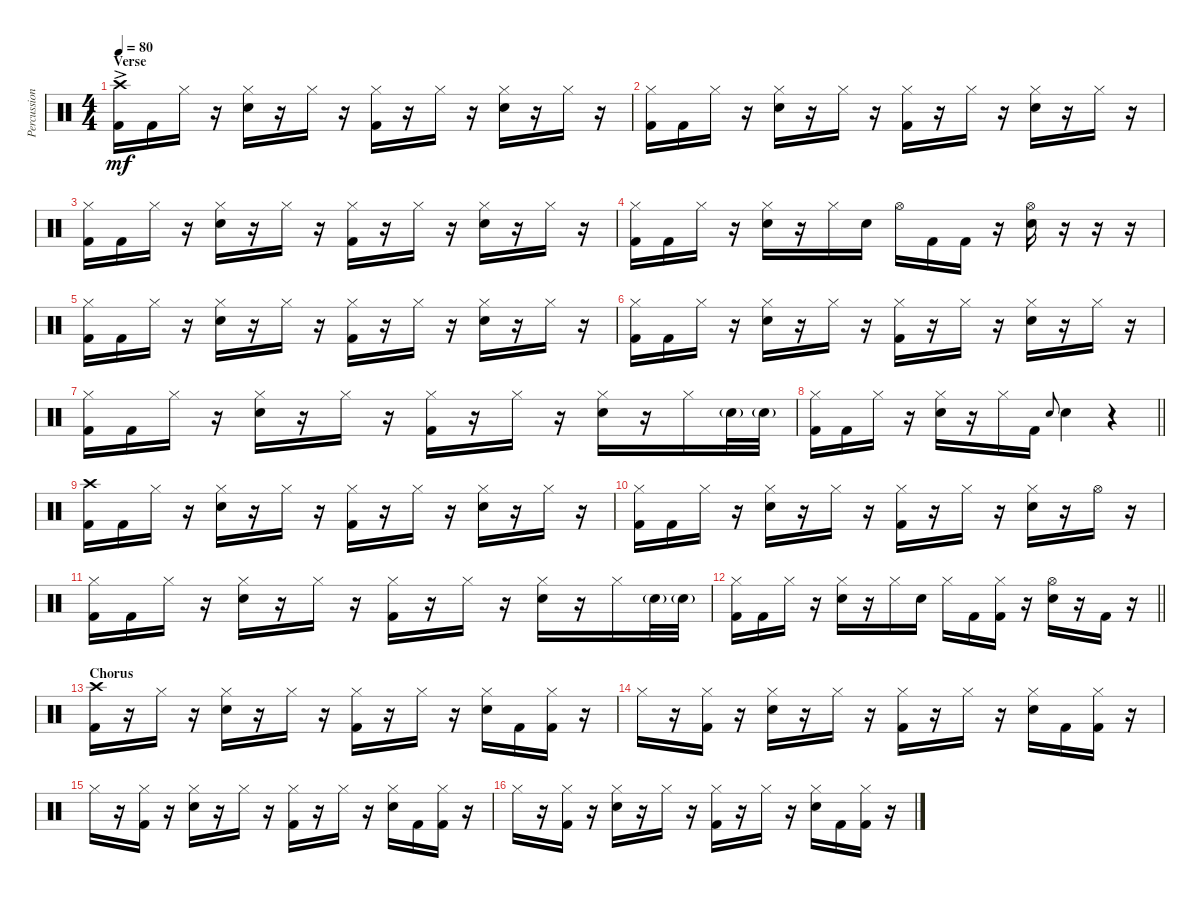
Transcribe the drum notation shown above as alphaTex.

\track ("Percussion" "Percussion") {instrument percussion}
\staff {score}
\articulation defaults
\ts (4 4)
\section ("" "Verse")
\tempo 80
\clef neutral
\ks c
("Crash high (hit)"{ac} "Kick (hit) 2").16{dy mf} "Kick (hit) 2".16 "Hi-Hat (closed)".16 r.16 ("Hi-Hat (closed)" "Snare (hit) 2").16 r.16 "Hi-Hat (closed)".16 r.16 ("Hi-Hat (closed)" "Kick (hit) 2").16 r.16 "Hi-Hat (closed)".16 r.16 ("Hi-Hat (closed)" "Snare (hit) 2").16 r.16 "Hi-Hat (closed)".16 r.16 |
("Hi-Hat (closed)" "Kick (hit) 2").16 "Kick (hit) 2".16 "Hi-Hat (closed)".16 r.16 ("Hi-Hat (closed)" "Snare (hit) 2").16 r.16 "Hi-Hat (closed)".16 r.16 ("Hi-Hat (closed)" "Kick (hit) 2").16 r.16 "Hi-Hat (closed)".16 r.16 ("Hi-Hat (closed)" "Snare (hit) 2").16 r.16 "Hi-Hat (closed)".16 r.16 |
("Hi-Hat (closed)" "Kick (hit) 2").16 "Kick (hit) 2".16 "Hi-Hat (closed)".16 r.16 ("Hi-Hat (closed)" "Snare (hit) 2").16 r.16 "Hi-Hat (closed)".16 r.16 ("Hi-Hat (closed)" "Kick (hit) 2").16 r.16 "Hi-Hat (closed)".16 r.16 ("Hi-Hat (closed)" "Snare (hit) 2").16 r.16 "Hi-Hat (closed)".16 r.16 |
("Hi-Hat (closed)" "Kick (hit) 2").16 "Kick (hit) 2".16 "Hi-Hat (closed)".16 r.16 ("Hi-Hat (closed)" "Snare (hit) 2").16 r.16 "Hi-Hat (closed)".16 "Snare (hit) 2".16 "Hi-Hat (open)".16 "Kick (hit) 2".16 "Kick (hit) 2".16 r.16 ("Hi-Hat (open)" "Snare (hit) 2").16 r.16 r.16 r.16 |
("Hi-Hat (closed)" "Kick (hit) 2").16 "Kick (hit) 2".16 "Hi-Hat (closed)".16 r.16 ("Hi-Hat (closed)" "Snare (hit) 2").16 r.16 "Hi-Hat (closed)".16 r.16 ("Hi-Hat (closed)" "Kick (hit) 2").16 r.16 "Hi-Hat (closed)".16 r.16 ("Hi-Hat (closed)" "Snare (hit) 2").16 r.16 "Hi-Hat (closed)".16 r.16 |
("Hi-Hat (closed)" "Kick (hit) 2").16 "Kick (hit) 2".16 "Hi-Hat (closed)".16 r.16 ("Hi-Hat (closed)" "Snare (hit) 2").16 r.16 "Hi-Hat (closed)".16 r.16 ("Hi-Hat (closed)" "Kick (hit) 2").16 r.16 "Hi-Hat (closed)".16 r.16 ("Hi-Hat (closed)" "Snare (hit) 2").16 r.16 "Hi-Hat (closed)".16 r.16 |
("Hi-Hat (closed)" "Kick (hit) 2").16 "Kick (hit) 2".16 "Hi-Hat (closed)".16 r.16 ("Hi-Hat (closed)" "Snare (hit) 2").16 r.16 "Hi-Hat (closed)".16 r.16 ("Hi-Hat (closed)" "Kick (hit) 2").16 r.16 "Hi-Hat (closed)".16 r.16 ("Hi-Hat (closed)" "Snare (hit) 2").16 r.16 "Hi-Hat (closed)".16 "Snare (hit) 2"{g}.32 "Snare (hit) 2"{g}.32 |
\barLineRight lightlight
("Hi-Hat (closed)" "Kick (hit) 2").16 "Kick (hit) 2".16 "Hi-Hat (closed)".16 r.16 ("Hi-Hat (closed)" "Snare (hit) 2").16 r.16 "Hi-Hat (closed)".16 "Kick (hit) 2".16 "Electric Snare (hit)".8{gr onbeat} "Electric Snare (hit)".4 r.4 |
("Crash high (hit)" "Kick (hit) 2").16 "Kick (hit) 2".16 "Hi-Hat (closed)".16 r.16 ("Hi-Hat (closed)" "Snare (hit) 2").16 r.16 "Hi-Hat (closed)".16 r.16 ("Hi-Hat (closed)" "Kick (hit) 2").16 r.16 "Hi-Hat (closed)".16 r.16 ("Hi-Hat (closed)" "Snare (hit) 2").16 r.16 "Hi-Hat (closed)".16 r.16 |
("Hi-Hat (closed)" "Kick (hit) 2").16 "Kick (hit) 2".16 "Hi-Hat (closed)".16 r.16 ("Hi-Hat (closed)" "Snare (hit) 2").16 r.16 "Hi-Hat (closed)".16 r.16 ("Hi-Hat (closed)" "Kick (hit) 2").16 r.16 "Hi-Hat (closed)".16 r.16 ("Hi-Hat (closed)" "Snare (hit) 2").16 r.16 "Hi-Hat (open)".16 r.16 |
("Hi-Hat (closed)" "Kick (hit) 2").16 "Kick (hit) 2".16 "Hi-Hat (closed)".16 r.16 ("Hi-Hat (closed)" "Snare (hit) 2").16 r.16 "Hi-Hat (closed)".16 r.16 ("Hi-Hat (closed)" "Kick (hit) 2").16 r.16 "Hi-Hat (closed)".16 r.16 ("Hi-Hat (closed)" "Snare (hit) 2").16 r.16 "Hi-Hat (closed)".16 "Snare (hit) 2"{g}.32 "Snare (hit) 2"{g}.32 |
\barLineRight lightlight
("Hi-Hat (closed)" "Kick (hit) 2").16 "Kick (hit) 2".16 "Hi-Hat (closed)".16 r.16 ("Hi-Hat (closed)" "Snare (hit) 2").16 r.16 "Hi-Hat (closed)".16 "Snare (hit) 2".16 "Hi-Hat (closed)".16 "Kick (hit) 2".16 ("Hi-Hat (closed)" "Kick (hit) 2").16 r.16 ("Hi-Hat (open)" "Snare (hit) 2").16 r.16 "Kick (hit) 2".16 r.16 |
\section ("" "Chorus")
("Crash high (hit)" "Kick (hit) 2").16 r.16 "Hi-Hat (closed)".16 r.16 ("Hi-Hat (closed)" "Snare (hit) 2").16 r.16 "Hi-Hat (closed)".16 r.16 ("Hi-Hat (closed)" "Kick (hit) 2").16 r.16 "Hi-Hat (closed)".16 r.16 ("Hi-Hat (closed)" "Snare (hit) 2").16 "Kick (hit) 2".16 ("Hi-Hat (closed)" "Kick (hit) 2").16 r.16 |
"Hi-Hat (closed)".16 r.16 ("Hi-Hat (closed)" "Kick (hit) 2").16 r.16 ("Hi-Hat (closed)" "Snare (hit) 2").16 r.16 "Hi-Hat (closed)".16 r.16 ("Hi-Hat (closed)" "Kick (hit) 2").16 r.16 "Hi-Hat (closed)".16 r.16 ("Hi-Hat (closed)" "Snare (hit) 2").16 "Kick (hit) 2".16 ("Hi-Hat (closed)" "Kick (hit) 2").16 r.16 |
"Hi-Hat (closed)".16 r.16 ("Hi-Hat (closed)" "Kick (hit) 2").16 r.16 ("Hi-Hat (closed)" "Snare (hit) 2").16 r.16 "Hi-Hat (closed)".16 r.16 ("Hi-Hat (closed)" "Kick (hit) 2").16 r.16 "Hi-Hat (closed)".16 r.16 ("Hi-Hat (closed)" "Snare (hit) 2").16 "Kick (hit) 2".16 ("Hi-Hat (closed)" "Kick (hit) 2").16 r.16 |
"Hi-Hat (closed)".16 r.16 ("Hi-Hat (closed)" "Kick (hit) 2").16 r.16 ("Hi-Hat (closed)" "Snare (hit) 2").16 r.16 "Hi-Hat (closed)".16 r.16 ("Hi-Hat (closed)" "Kick (hit) 2").16 r.16 "Hi-Hat (closed)".16 r.16 ("Hi-Hat (closed)" "Snare (hit) 2").16 "Kick (hit) 2".16 ("Hi-Hat (closed)" "Kick (hit) 2").16 r.16
